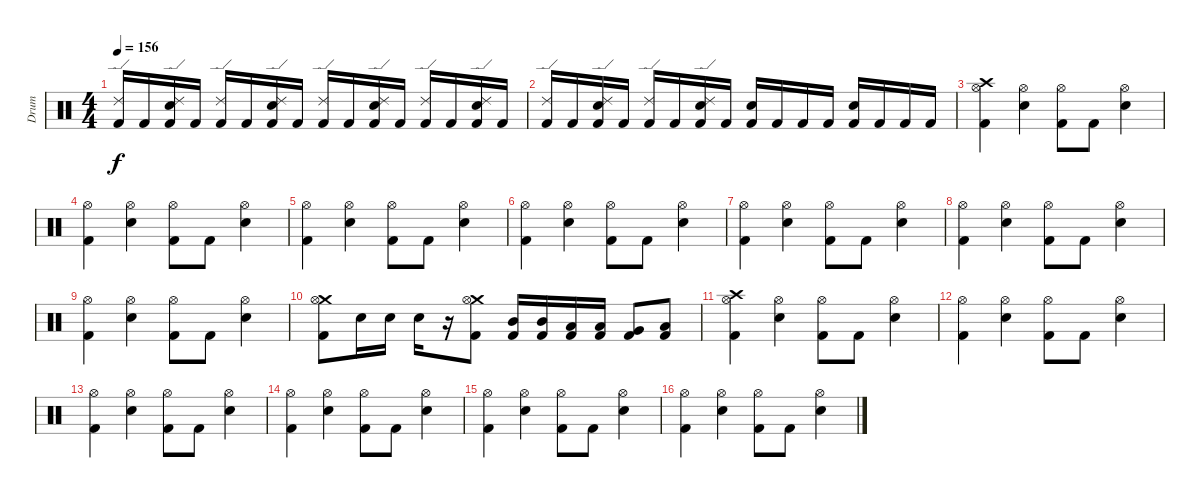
\track (" Drum" " Drum") {instrument percussion}
\staff {score}
\articulation defaults
\ts (4 4)
\tempo 156
\clef neutral
\ks c
("Ride (edge) 2" "Kick (hit) 2").16{dy f} "Kick (hit) 2".16 ("Snare (hit) 2" "Ride (edge) 2" "Kick (hit) 2").16 "Kick (hit) 2".16 ("Ride (edge) 2" "Kick (hit) 2").16 "Kick (hit) 2".16 ("Snare (hit) 2" "Ride (edge) 2" "Kick (hit) 2").16 "Kick (hit) 2".16 ("Ride (edge) 2" "Kick (hit) 2").16 "Kick (hit) 2".16 ("Snare (hit) 2" "Ride (edge) 2" "Kick (hit) 2").16 "Kick (hit) 2".16 ("Ride (edge) 2" "Kick (hit) 2").16 "Kick (hit) 2".16 ("Snare (hit) 2" "Ride (edge) 2" "Kick (hit) 2").16 "Kick (hit) 2".16 |
("Ride (edge) 2" "Kick (hit) 2").16 "Kick (hit) 2".16 ("Snare (hit) 2" "Ride (edge) 2" "Kick (hit) 2").16 "Kick (hit) 2".16 ("Ride (edge) 2" "Kick (hit) 2").16 "Kick (hit) 2".16 ("Snare (hit) 2" "Ride (edge) 2" "Kick (hit) 2").16 "Kick (hit) 2".16 ("Snare (hit) 2" "Kick (hit) 2").16 "Kick (hit) 2".16 "Kick (hit) 2".16 "Kick (hit) 2".16 ("Snare (hit) 2" "Kick (hit) 2").16 "Kick (hit) 2".16 "Kick (hit) 2".16 "Kick (hit) 2".16 |
("Crash high (hit)" "Hi-Hat (open)" "Kick (hit) 2").4 ("Hi-Hat (open)" "Snare (hit) 2").4 ("Hi-Hat (open)" "Kick (hit) 2").8 "Kick (hit) 2".8 ("Hi-Hat (open)" "Snare (hit) 2").4 |
("Hi-Hat (open)" "Kick (hit) 2").4 ("Hi-Hat (open)" "Snare (hit) 2").4 ("Hi-Hat (open)" "Kick (hit) 2").8 "Kick (hit) 2".8 ("Hi-Hat (open)" "Snare (hit) 2").4 |
("Hi-Hat (open)" "Kick (hit) 2").4 ("Hi-Hat (open)" "Snare (hit) 2").4 ("Hi-Hat (open)" "Kick (hit) 2").8 "Kick (hit) 2".8 ("Hi-Hat (open)" "Snare (hit) 2").4 |
("Hi-Hat (open)" "Kick (hit) 2").4 ("Hi-Hat (open)" "Snare (hit) 2").4 ("Hi-Hat (open)" "Kick (hit) 2").8 "Kick (hit) 2".8 ("Hi-Hat (open)" "Snare (hit) 2").4 |
("Hi-Hat (open)" "Kick (hit) 2").4 ("Hi-Hat (open)" "Snare (hit) 2").4 ("Hi-Hat (open)" "Kick (hit) 2").8 "Kick (hit) 2".8 ("Hi-Hat (open)" "Snare (hit) 2").4 |
("Hi-Hat (open)" "Kick (hit) 2").4 ("Hi-Hat (open)" "Snare (hit) 2").4 ("Hi-Hat (open)" "Kick (hit) 2").8 "Kick (hit) 2".8 ("Hi-Hat (open)" "Snare (hit) 2").4 |
("Hi-Hat (open)" "Kick (hit) 2").4 ("Hi-Hat (open)" "Snare (hit) 2").4 ("Hi-Hat (open)" "Kick (hit) 2").8 "Kick (hit) 2".8 ("Hi-Hat (open)" "Snare (hit) 2").4 |
("Crash medium (hit)" "Hi-Hat (open)" "Kick (hit) 2").8 "Snare (hit) 2".16 "Snare (hit) 2".16 "Snare (hit) 2".16 r.16 ("Crash medium (hit)" "Hi-Hat (open)" "Kick (hit) 2").8 ("Mid Tom (hit)" "Kick (hit) 2").16 ("Mid Tom (hit)" "Kick (hit) 2").16 ("Low Tom (hit)" "Kick (hit) 2").16 ("Low Tom (hit)" "Kick (hit) 2").16 ("Very Low Tom (hit)" "Kick (hit) 2").8 ("Low Floor Tom (hit)" "Kick (hit) 2").8 |
("Crash high (hit)" "Hi-Hat (open)" "Kick (hit) 2").4 ("Hi-Hat (open)" "Snare (hit) 2").4 ("Hi-Hat (open)" "Kick (hit) 2").8 "Kick (hit) 2".8 ("Hi-Hat (open)" "Snare (hit) 2").4 |
("Hi-Hat (open)" "Kick (hit) 2").4 ("Hi-Hat (open)" "Snare (hit) 2").4 ("Hi-Hat (open)" "Kick (hit) 2").8 "Kick (hit) 2".8 ("Hi-Hat (open)" "Snare (hit) 2").4 |
("Hi-Hat (open)" "Kick (hit) 2").4 ("Hi-Hat (open)" "Snare (hit) 2").4 ("Hi-Hat (open)" "Kick (hit) 2").8 "Kick (hit) 2".8 ("Hi-Hat (open)" "Snare (hit) 2").4 |
("Hi-Hat (open)" "Kick (hit) 2").4 ("Hi-Hat (open)" "Snare (hit) 2").4 ("Hi-Hat (open)" "Kick (hit) 2").8 "Kick (hit) 2".8 ("Hi-Hat (open)" "Snare (hit) 2").4 |
("Hi-Hat (open)" "Kick (hit) 2").4 ("Hi-Hat (open)" "Snare (hit) 2").4 ("Hi-Hat (open)" "Kick (hit) 2").8 "Kick (hit) 2".8 ("Hi-Hat (open)" "Snare (hit) 2").4 |
("Hi-Hat (open)" "Kick (hit) 2").4 ("Hi-Hat (open)" "Snare (hit) 2").4 ("Hi-Hat (open)" "Kick (hit) 2").8 "Kick (hit) 2".8 ("Hi-Hat (open)" "Snare (hit) 2").4
